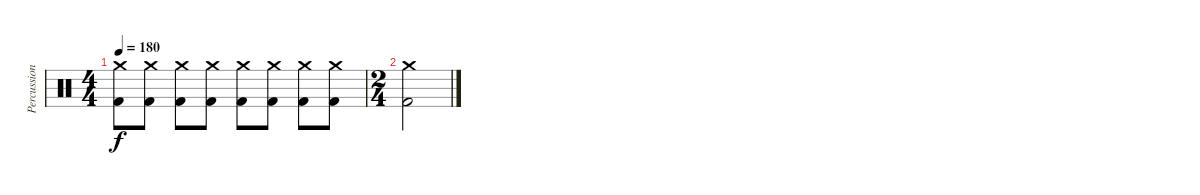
\track ("Percussion" "Percussion") {instrument percussion}
\staff {score}
\articulation defaults
\ts (4 4)
\tempo 180
\clef neutral
\ks c
("Crash medium (hit)" "Kick (hit) 2").8{dy f} ("Crash medium (hit)" "Kick (hit) 2").8 ("Crash medium (hit)" "Kick (hit) 2").8 ("Crash medium (hit)" "Kick (hit) 2").8 ("Crash medium (hit)" "Kick (hit) 2").8 ("Crash medium (hit)" "Kick (hit) 2").8 ("Crash medium (hit)" "Kick (hit) 2").8 ("Crash medium (hit)" "Kick (hit) 2").8 |
\ts (2 4)
("Crash medium (hit)" "Kick (hit) 2").2
